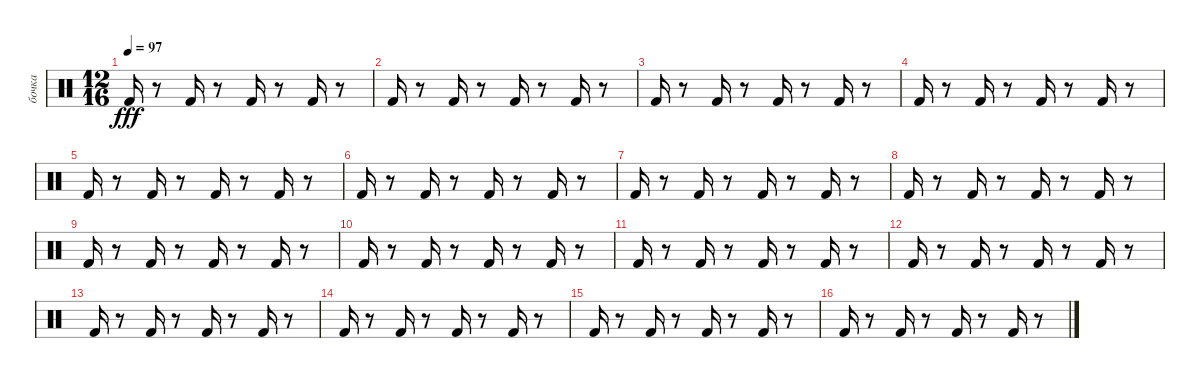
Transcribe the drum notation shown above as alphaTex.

\track ("бочка" "бочка") {instrument percussion}
\staff {score}
\articulation defaults
\ts (12 16)
\tempo 97
\clef neutral
\ks c "Kick (hit) 2".16{dy fff}
r.8 "Kick (hit) 2".16 r.8 "Kick (hit) 2".16 r.8 "Kick (hit) 2".16 r.8 |
"Kick (hit) 2".16 r.8 "Kick (hit) 2".16 r.8 "Kick (hit) 2".16 r.8 "Kick (hit) 2".16 r.8 |
"Kick (hit) 2".16 r.8 "Kick (hit) 2".16 r.8 "Kick (hit) 2".16 r.8 "Kick (hit) 2".16 r.8 |
"Kick (hit) 2".16 r.8 "Kick (hit) 2".16 r.8 "Kick (hit) 2".16 r.8 "Kick (hit) 2".16 r.8 |
"Kick (hit) 2".16 r.8 "Kick (hit) 2".16 r.8 "Kick (hit) 2".16 r.8 "Kick (hit) 2".16 r.8 |
"Kick (hit) 2".16 r.8 "Kick (hit) 2".16 r.8 "Kick (hit) 2".16 r.8 "Kick (hit) 2".16 r.8 |
"Kick (hit) 2".16 r.8 "Kick (hit) 2".16 r.8 "Kick (hit) 2".16 r.8 "Kick (hit) 2".16 r.8 |
"Kick (hit) 2".16 r.8 "Kick (hit) 2".16 r.8 "Kick (hit) 2".16 r.8 "Kick (hit) 2".16 r.8 |
"Kick (hit) 2".16 r.8 "Kick (hit) 2".16 r.8 "Kick (hit) 2".16 r.8 "Kick (hit) 2".16 r.8 |
"Kick (hit) 2".16 r.8 "Kick (hit) 2".16 r.8 "Kick (hit) 2".16 r.8 "Kick (hit) 2".16 r.8 |
"Kick (hit) 2".16 r.8 "Kick (hit) 2".16 r.8 "Kick (hit) 2".16 r.8 "Kick (hit) 2".16 r.8 |
"Kick (hit) 2".16 r.8 "Kick (hit) 2".16 r.8 "Kick (hit) 2".16 r.8 "Kick (hit) 2".16 r.8 |
"Kick (hit) 2".16 r.8 "Kick (hit) 2".16 r.8 "Kick (hit) 2".16 r.8 "Kick (hit) 2".16 r.8 |
"Kick (hit) 2".16 r.8 "Kick (hit) 2".16 r.8 "Kick (hit) 2".16 r.8 "Kick (hit) 2".16 r.8 |
"Kick (hit) 2".16 r.8 "Kick (hit) 2".16 r.8 "Kick (hit) 2".16 r.8 "Kick (hit) 2".16 r.8 |
"Kick (hit) 2".16 r.8 "Kick (hit) 2".16 r.8 "Kick (hit) 2".16 r.8 "Kick (hit) 2".16 r.8
